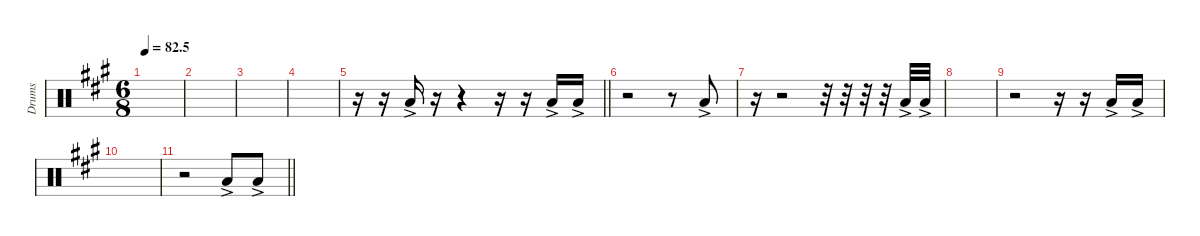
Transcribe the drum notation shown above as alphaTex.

\defaultSystemsLayout 4
\hideDynamics
\bracketExtendMode nobrackets
\otherSystemsTrackNameOrientation horizontal
\track ("Tom 03" "Drums") {instrument percussion}
\staff {score}
\articulation defaults
\ts (6 8)
\tempo
82.5
\accidentals auto
\clef neutral
\ottava regular
\simile none
\scale
0.333333
\ks a
|
\scale
0.333333 |
\scale
0.333333 |
\scale
0.333333 |
\scale
0.333333
\barLineRight lightlight
r.16 r.16 "Low Tom (hit)"{ac acc forcenatural}.16 r.16 r.4 r.16 r.16 "Low Tom (hit)"{ac acc forcenatural}.16 "Low Tom (hit)"{ac acc forcenatural}.16 |
\scale
0.333333 r.2 r.8 "Low Tom (hit)"{ac acc forcenatural}.8 |
\scale
0.333333 r.16 r.2 r.32 r.32 r.32 r.32 "Low Tom (hit)"{ac acc forcenatural}.32 "Low Tom (hit)"{ac acc forcenatural}.32 |
\scale
0.333333 |
\scale
0.333333 r.2 r.16 r.16 "Low Tom (hit)"{ac acc forcenatural}.16 "Low Tom (hit)"{ac acc forcenatural}.16 |
\scale
0.333333 |
\scale
0.333333
\barLineRight lightlight
r.2 "Low Tom (hit)"{ac acc forcenatural}.8 "Low Tom (hit)"{ac acc forcenatural}.8 |
\scale
0.333333 |
\scale
0.333333 |
\scale
0.333333 |
\scale
0.333333 |
\scale
0.333333
